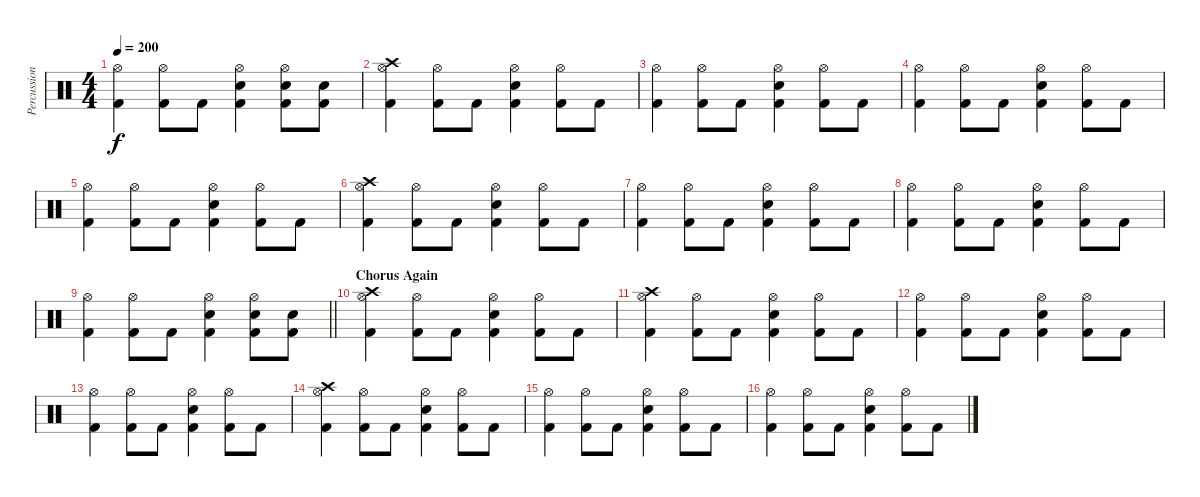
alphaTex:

\track ("Percussion" "Percussion") {instrument percussion}
\staff {score}
\articulation defaults
\ts (4 4)
\tempo 200
\clef neutral
\ks c
("Hi-Hat (open)" "Kick (hit) 2").4{dy f} ("Hi-Hat (open)" "Kick (hit) 2").8 "Kick (hit) 2".8 ("Hi-Hat (open)" "Snare (hit) 2" "Kick (hit) 2").4 ("Hi-Hat (open)" "Snare (hit) 2" "Kick (hit) 2").8 ("Snare (hit) 2" "Kick (hit) 2").8 |
("Crash high (hit)" "Hi-Hat (open)" "Kick (hit) 2").4 ("Hi-Hat (open)" "Kick (hit) 2").8 "Kick (hit) 2".8 ("Hi-Hat (open)" "Snare (hit) 2" "Kick (hit) 2").4 ("Hi-Hat (open)" "Kick (hit) 2").8 "Kick (hit) 2".8 |
("Hi-Hat (open)" "Kick (hit) 2").4 ("Hi-Hat (open)" "Kick (hit) 2").8 "Kick (hit) 2".8 ("Hi-Hat (open)" "Snare (hit) 2" "Kick (hit) 2").4 ("Hi-Hat (open)" "Kick (hit) 2").8 "Kick (hit) 2".8 |
("Hi-Hat (open)" "Kick (hit) 2").4 ("Hi-Hat (open)" "Kick (hit) 2").8 "Kick (hit) 2".8 ("Hi-Hat (open)" "Snare (hit) 2" "Kick (hit) 2").4 ("Hi-Hat (open)" "Kick (hit) 2").8 "Kick (hit) 2".8 |
("Hi-Hat (open)" "Kick (hit) 2").4 ("Hi-Hat (open)" "Kick (hit) 2").8 "Kick (hit) 2".8 ("Hi-Hat (open)" "Snare (hit) 2" "Kick (hit) 2").4 ("Hi-Hat (open)" "Kick (hit) 2").8 "Kick (hit) 2".8 |
("Crash high (hit)" "Hi-Hat (open)" "Kick (hit) 2").4 ("Hi-Hat (open)" "Kick (hit) 2").8 "Kick (hit) 2".8 ("Hi-Hat (open)" "Snare (hit) 2" "Kick (hit) 2").4 ("Hi-Hat (open)" "Kick (hit) 2").8 "Kick (hit) 2".8 |
("Hi-Hat (open)" "Kick (hit) 2").4 ("Hi-Hat (open)" "Kick (hit) 2").8 "Kick (hit) 2".8 ("Hi-Hat (open)" "Snare (hit) 2" "Kick (hit) 2").4 ("Hi-Hat (open)" "Kick (hit) 2").8 "Kick (hit) 2".8 |
("Hi-Hat (open)" "Kick (hit) 2").4 ("Hi-Hat (open)" "Kick (hit) 2").8 "Kick (hit) 2".8 ("Hi-Hat (open)" "Snare (hit) 2" "Kick (hit) 2").4 ("Hi-Hat (open)" "Kick (hit) 2").8 "Kick (hit) 2".8 |
\barLineRight lightlight
("Hi-Hat (open)" "Kick (hit) 2").4 ("Hi-Hat (open)" "Kick (hit) 2").8 "Kick (hit) 2".8 ("Hi-Hat (open)" "Snare (hit) 2" "Kick (hit) 2").4 ("Hi-Hat (open)" "Snare (hit) 2" "Kick (hit) 2").8 ("Snare (hit) 2" "Kick (hit) 2").8 |
\section ("" "Chorus Again")
("Crash high (hit)" "Hi-Hat (open)" "Kick (hit) 2").4 ("Hi-Hat (open)" "Kick (hit) 2").8 "Kick (hit) 2".8 ("Hi-Hat (open)" "Snare (hit) 2" "Kick (hit) 2").4 ("Hi-Hat (open)" "Kick (hit) 2").8 "Kick (hit) 2".8 |
("Crash high (hit)" "Hi-Hat (open)" "Kick (hit) 2").4 ("Hi-Hat (open)" "Kick (hit) 2").8 "Kick (hit) 2".8 ("Hi-Hat (open)" "Snare (hit) 2" "Kick (hit) 2").4 ("Hi-Hat (open)" "Kick (hit) 2").8 "Kick (hit) 2".8 |
("Hi-Hat (open)" "Kick (hit) 2").4 ("Hi-Hat (open)" "Kick (hit) 2").8 "Kick (hit) 2".8 ("Hi-Hat (open)" "Snare (hit) 2" "Kick (hit) 2").4 ("Hi-Hat (open)" "Kick (hit) 2").8 "Kick (hit) 2".8 |
("Hi-Hat (open)" "Kick (hit) 2").4 ("Hi-Hat (open)" "Kick (hit) 2").8 "Kick (hit) 2".8 ("Hi-Hat (open)" "Snare (hit) 2" "Kick (hit) 2").4 ("Hi-Hat (open)" "Kick (hit) 2").8 "Kick (hit) 2".8 |
("Crash high (hit)" "Hi-Hat (open)" "Kick (hit) 2").4 ("Hi-Hat (open)" "Kick (hit) 2").8 "Kick (hit) 2".8 ("Hi-Hat (open)" "Snare (hit) 2" "Kick (hit) 2").4 ("Hi-Hat (open)" "Kick (hit) 2").8 "Kick (hit) 2".8 |
("Hi-Hat (open)" "Kick (hit) 2").4 ("Hi-Hat (open)" "Kick (hit) 2").8 "Kick (hit) 2".8 ("Hi-Hat (open)" "Snare (hit) 2" "Kick (hit) 2").4 ("Hi-Hat (open)" "Kick (hit) 2").8 "Kick (hit) 2".8 |
("Hi-Hat (open)" "Kick (hit) 2").4 ("Hi-Hat (open)" "Kick (hit) 2").8 "Kick (hit) 2".8 ("Hi-Hat (open)" "Snare (hit) 2" "Kick (hit) 2").4 ("Hi-Hat (open)" "Kick (hit) 2").8 "Kick (hit) 2".8
